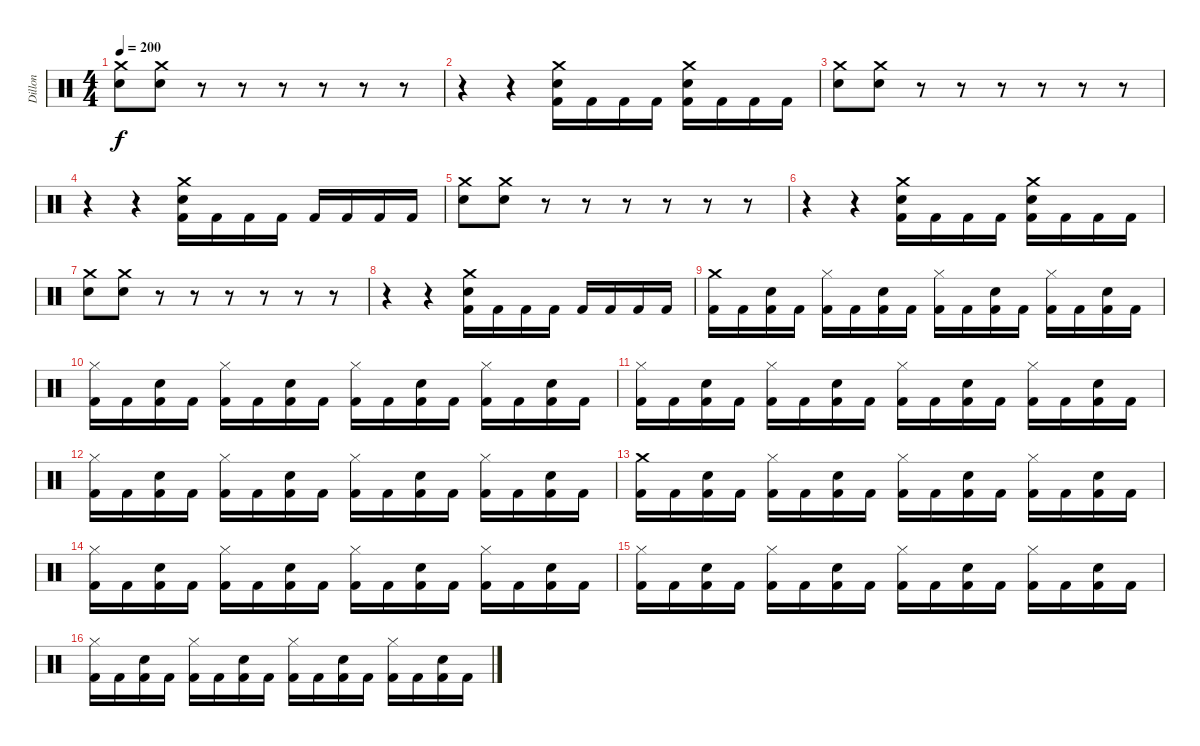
\track ("Dillon" "Dillon") {instrument percussion}
\staff {score}
\articulation defaults
\ts (4 4)
\tempo 200
\clef neutral
\ks c
("Crash medium (hit)" "Electric Snare (hit)").8{dy f} ("Crash medium (hit)" "Electric Snare (hit)").8 r.8 r.8 r.8 r.8 r.8 r.8 |
r.4 r.4 ("Crash medium (hit)" "Electric Snare (hit)" "Kick (hit) 2").16 "Kick (hit) 2".16 "Kick (hit) 2".16 "Kick (hit) 2".16 ("Crash medium (hit)" "Electric Snare (hit)" "Kick (hit) 2").16 "Kick (hit) 2".16 "Kick (hit) 2".16 "Kick (hit) 2".16 |
("Crash medium (hit)" "Electric Snare (hit)").8 ("Crash medium (hit)" "Electric Snare (hit)").8 r.8 r.8 r.8 r.8 r.8 r.8 |
r.4 r.4 ("Crash medium (hit)" "Electric Snare (hit)" "Kick (hit) 2").16 "Kick (hit) 2".16 "Kick (hit) 2".16 "Kick (hit) 2".16 "Kick (hit) 2".16 "Kick (hit) 2".16 "Kick (hit) 2".16 "Kick (hit) 2".16 |
("Crash medium (hit)" "Electric Snare (hit)").8 ("Crash medium (hit)" "Electric Snare (hit)").8 r.8 r.8 r.8 r.8 r.8 r.8 |
r.4 r.4 ("Crash medium (hit)" "Electric Snare (hit)" "Kick (hit) 2").16 "Kick (hit) 2".16 "Kick (hit) 2".16 "Kick (hit) 2".16 ("Crash medium (hit)" "Electric Snare (hit)" "Kick (hit) 2").16 "Kick (hit) 2".16 "Kick (hit) 2".16 "Kick (hit) 2".16 |
("Crash medium (hit)" "Electric Snare (hit)").8 ("Crash medium (hit)" "Electric Snare (hit)").8 r.8 r.8 r.8 r.8 r.8 r.8 |
r.4 r.4 ("Crash medium (hit)" "Electric Snare (hit)" "Kick (hit) 2").16 "Kick (hit) 2".16 "Kick (hit) 2".16 "Kick (hit) 2".16 "Kick (hit) 2".16 "Kick (hit) 2".16 "Kick (hit) 2".16 "Kick (hit) 2".16 |
("Crash medium (hit)" "Kick (hit) 2").16 "Kick (hit) 2".16 ("Electric Snare (hit)" "Kick (hit) 2").16 "Kick (hit) 2".16 ("Hi-Hat (closed)" "Kick (hit) 2").16 "Kick (hit) 2".16 ("Electric Snare (hit)" "Kick (hit) 2").16 "Kick (hit) 2".16 ("Hi-Hat (closed)" "Kick (hit) 2").16 "Kick (hit) 2".16 ("Electric Snare (hit)" "Kick (hit) 2").16 "Kick (hit) 2".16 ("Hi-Hat (closed)" "Kick (hit) 2").16 "Kick (hit) 2".16 ("Electric Snare (hit)" "Kick (hit) 2").16 "Kick (hit) 2".16 |
("Hi-Hat (closed)" "Kick (hit) 2").16 "Kick (hit) 2".16 ("Electric Snare (hit)" "Kick (hit) 2").16 "Kick (hit) 2".16 ("Hi-Hat (closed)" "Kick (hit) 2").16 "Kick (hit) 2".16 ("Electric Snare (hit)" "Kick (hit) 2").16 "Kick (hit) 2".16 ("Hi-Hat (closed)" "Kick (hit) 2").16 "Kick (hit) 2".16 ("Electric Snare (hit)" "Kick (hit) 2").16 "Kick (hit) 2".16 ("Hi-Hat (closed)" "Kick (hit) 2").16 "Kick (hit) 2".16 ("Electric Snare (hit)" "Kick (hit) 2").16 "Kick (hit) 2".16 |
("Hi-Hat (closed)" "Kick (hit) 2").16 "Kick (hit) 2".16 ("Electric Snare (hit)" "Kick (hit) 2").16 "Kick (hit) 2".16 ("Hi-Hat (closed)" "Kick (hit) 2").16 "Kick (hit) 2".16 ("Electric Snare (hit)" "Kick (hit) 2").16 "Kick (hit) 2".16 ("Hi-Hat (closed)" "Kick (hit) 2").16 "Kick (hit) 2".16 ("Electric Snare (hit)" "Kick (hit) 2").16 "Kick (hit) 2".16 ("Hi-Hat (closed)" "Kick (hit) 2").16 "Kick (hit) 2".16 ("Electric Snare (hit)" "Kick (hit) 2").16 "Kick (hit) 2".16 |
("Hi-Hat (closed)" "Kick (hit) 2").16 "Kick (hit) 2".16 ("Electric Snare (hit)" "Kick (hit) 2").16 "Kick (hit) 2".16 ("Hi-Hat (closed)" "Kick (hit) 2").16 "Kick (hit) 2".16 ("Electric Snare (hit)" "Kick (hit) 2").16 "Kick (hit) 2".16 ("Hi-Hat (closed)" "Kick (hit) 2").16 "Kick (hit) 2".16 ("Electric Snare (hit)" "Kick (hit) 2").16 "Kick (hit) 2".16 ("Hi-Hat (closed)" "Kick (hit) 2").16 "Kick (hit) 2".16 ("Electric Snare (hit)" "Kick (hit) 2").16 "Kick (hit) 2".16 |
("Crash medium (hit)" "Kick (hit) 2").16 "Kick (hit) 2".16 ("Electric Snare (hit)" "Kick (hit) 2").16 "Kick (hit) 2".16 ("Hi-Hat (closed)" "Kick (hit) 2").16 "Kick (hit) 2".16 ("Electric Snare (hit)" "Kick (hit) 2").16 "Kick (hit) 2".16 ("Hi-Hat (closed)" "Kick (hit) 2").16 "Kick (hit) 2".16 ("Electric Snare (hit)" "Kick (hit) 2").16 "Kick (hit) 2".16 ("Hi-Hat (closed)" "Kick (hit) 2").16 "Kick (hit) 2".16 ("Electric Snare (hit)" "Kick (hit) 2").16 "Kick (hit) 2".16 |
("Hi-Hat (closed)" "Kick (hit) 2").16 "Kick (hit) 2".16 ("Electric Snare (hit)" "Kick (hit) 2").16 "Kick (hit) 2".16 ("Hi-Hat (closed)" "Kick (hit) 2").16 "Kick (hit) 2".16 ("Electric Snare (hit)" "Kick (hit) 2").16 "Kick (hit) 2".16 ("Hi-Hat (closed)" "Kick (hit) 2").16 "Kick (hit) 2".16 ("Electric Snare (hit)" "Kick (hit) 2").16 "Kick (hit) 2".16 ("Hi-Hat (closed)" "Kick (hit) 2").16 "Kick (hit) 2".16 ("Electric Snare (hit)" "Kick (hit) 2").16 "Kick (hit) 2".16 |
("Hi-Hat (closed)" "Kick (hit) 2").16 "Kick (hit) 2".16 ("Electric Snare (hit)" "Kick (hit) 2").16 "Kick (hit) 2".16 ("Hi-Hat (closed)" "Kick (hit) 2").16 "Kick (hit) 2".16 ("Electric Snare (hit)" "Kick (hit) 2").16 "Kick (hit) 2".16 ("Hi-Hat (closed)" "Kick (hit) 2").16 "Kick (hit) 2".16 ("Electric Snare (hit)" "Kick (hit) 2").16 "Kick (hit) 2".16 ("Hi-Hat (closed)" "Kick (hit) 2").16 "Kick (hit) 2".16 ("Electric Snare (hit)" "Kick (hit) 2").16 "Kick (hit) 2".16 |
("Hi-Hat (closed)" "Kick (hit) 2").16 "Kick (hit) 2".16 ("Electric Snare (hit)" "Kick (hit) 2").16 "Kick (hit) 2".16 ("Hi-Hat (closed)" "Kick (hit) 2").16 "Kick (hit) 2".16 ("Electric Snare (hit)" "Kick (hit) 2").16 "Kick (hit) 2".16 ("Hi-Hat (closed)" "Kick (hit) 2").16 "Kick (hit) 2".16 ("Electric Snare (hit)" "Kick (hit) 2").16 "Kick (hit) 2".16 ("Hi-Hat (closed)" "Kick (hit) 2").16 "Kick (hit) 2".16 ("Electric Snare (hit)" "Kick (hit) 2").16 "Kick (hit) 2".16
